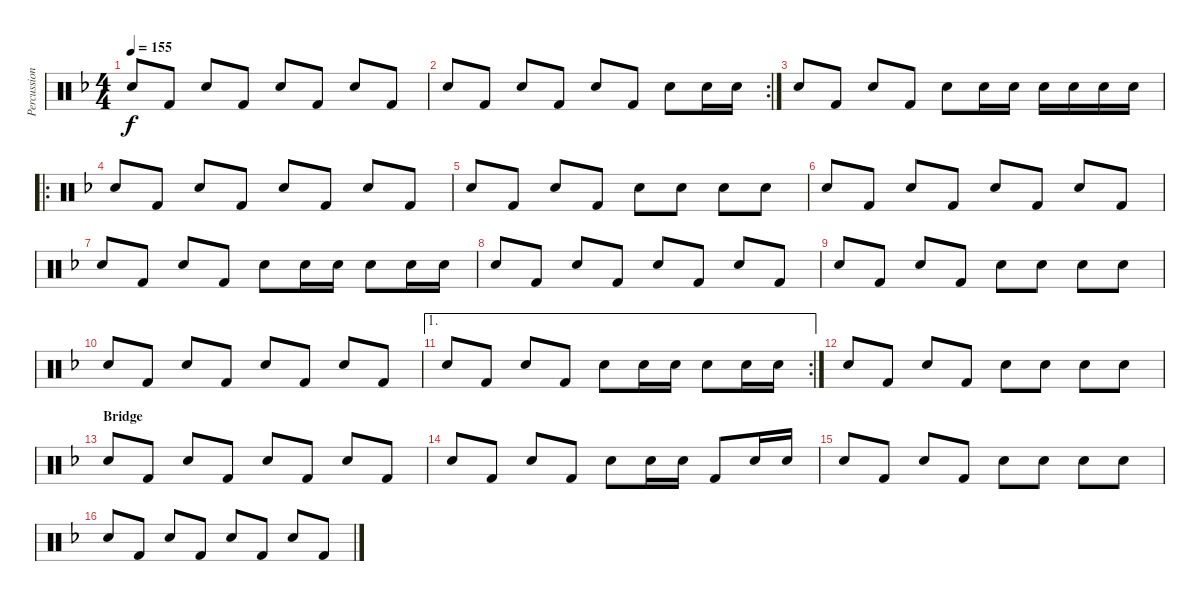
\track ("Percussions" "Percussion") {instrument percussion}
\staff {score}
\articulation defaults
\ts (4 4)
\tempo 155
\clef neutral
\ks f "Snare (hit) 2".8{dy f} "Kick (hit) 2".8 "Snare (hit) 2".8 "Kick (hit) 2".8 "Snare (hit) 2".8 "Kick (hit) 2".8 "Snare (hit) 2".8 "Kick (hit) 2".8
|
\rc 2 "Snare (hit) 2".8 "Kick (hit) 2".8 "Snare (hit) 2".8 "Kick (hit) 2".8 "Snare (hit) 2".8 "Kick (hit) 2".8 "Snare (hit) 2".8 "Snare (hit) 2".16 "Snare (hit) 2".16
|
"Snare (hit) 2".8 "Kick (hit) 2".8 "Snare (hit) 2".8 "Kick (hit) 2".8 "Snare (hit) 2".8 "Snare (hit) 2".16 "Snare (hit) 2".16 "Snare (hit) 2".16 "Snare (hit) 2".16 "Snare (hit) 2".16 "Snare (hit) 2".16 |
\ro "Snare (hit) 2".8 "Kick (hit) 2".8 "Snare (hit) 2".8 "Kick (hit) 2".8 "Snare (hit) 2".8 "Kick (hit) 2".8 "Snare (hit) 2".8 "Kick (hit) 2".8
|
"Snare (hit) 2".8 "Kick (hit) 2".8 "Snare (hit) 2".8 "Kick (hit) 2".8 "Snare (hit) 2".8 "Snare (hit) 2".8 "Snare (hit) 2".8 "Snare (hit) 2".8 |
"Snare (hit) 2".8 "Kick (hit) 2".8 "Snare (hit) 2".8 "Kick (hit) 2".8 "Snare (hit) 2".8 "Kick (hit) 2".8 "Snare (hit) 2".8 "Kick (hit) 2".8 |
"Snare (hit) 2".8 "Kick (hit) 2".8 "Snare (hit) 2".8 "Kick (hit) 2".8 "Snare (hit) 2".8 "Snare (hit) 2".16 "Snare (hit) 2".16 "Snare (hit) 2".8 "Snare (hit) 2".16 "Snare (hit) 2".16 |
"Snare (hit) 2".8 "Kick (hit) 2".8 "Snare (hit) 2".8 "Kick (hit) 2".8 "Snare (hit) 2".8 "Kick (hit) 2".8 "Snare (hit) 2".8 "Kick (hit) 2".8 |
"Snare (hit) 2".8 "Kick (hit) 2".8 "Snare (hit) 2".8 "Kick (hit) 2".8 "Snare (hit) 2".8 "Snare (hit) 2".8 "Snare (hit) 2".8 "Snare (hit) 2".8 |
"Snare (hit) 2".8 "Kick (hit) 2".8 "Snare (hit) 2".8 "Kick (hit) 2".8 "Snare (hit) 2".8 "Kick (hit) 2".8 "Snare (hit) 2".8 "Kick (hit) 2".8 |
\ae 1
\rc 2 "Snare (hit) 2".8 "Kick (hit) 2".8 "Snare (hit) 2".8 "Kick (hit) 2".8 "Snare (hit) 2".8 "Snare (hit) 2".16 "Snare (hit) 2".16 "Snare (hit) 2".8 "Snare (hit) 2".16 "Snare (hit) 2".16
|
"Snare (hit) 2".8 "Kick (hit) 2".8 "Snare (hit) 2".8 "Kick (hit) 2".8 "Snare (hit) 2".8 "Snare (hit) 2".8 "Snare (hit) 2".8 "Snare (hit) 2".8 |
\section ("" "Bridge")
"Snare (hit) 2".8 "Kick (hit) 2".8 "Snare (hit) 2".8 "Kick (hit) 2".8 "Snare (hit) 2".8 "Kick (hit) 2".8 "Snare (hit) 2".8 "Kick (hit) 2".8 |
"Snare (hit) 2".8 "Kick (hit) 2".8 "Snare (hit) 2".8 "Kick (hit) 2".8 "Snare (hit) 2".8 "Snare (hit) 2".16 "Snare (hit) 2".16 "Kick (hit) 2".8 "Snare (hit) 2".16 "Snare (hit) 2".16 |
"Snare (hit) 2".8 "Kick (hit) 2".8 "Snare (hit) 2".8 "Kick (hit) 2".8 "Snare (hit) 2".8 "Snare (hit) 2".8 "Snare (hit) 2".8 "Snare (hit) 2".8 |
"Snare (hit) 2".8 "Kick (hit) 2".8 "Snare (hit) 2".8 "Kick (hit) 2".8 "Snare (hit) 2".8 "Kick (hit) 2".8 "Snare (hit) 2".8 "Kick (hit) 2".8
